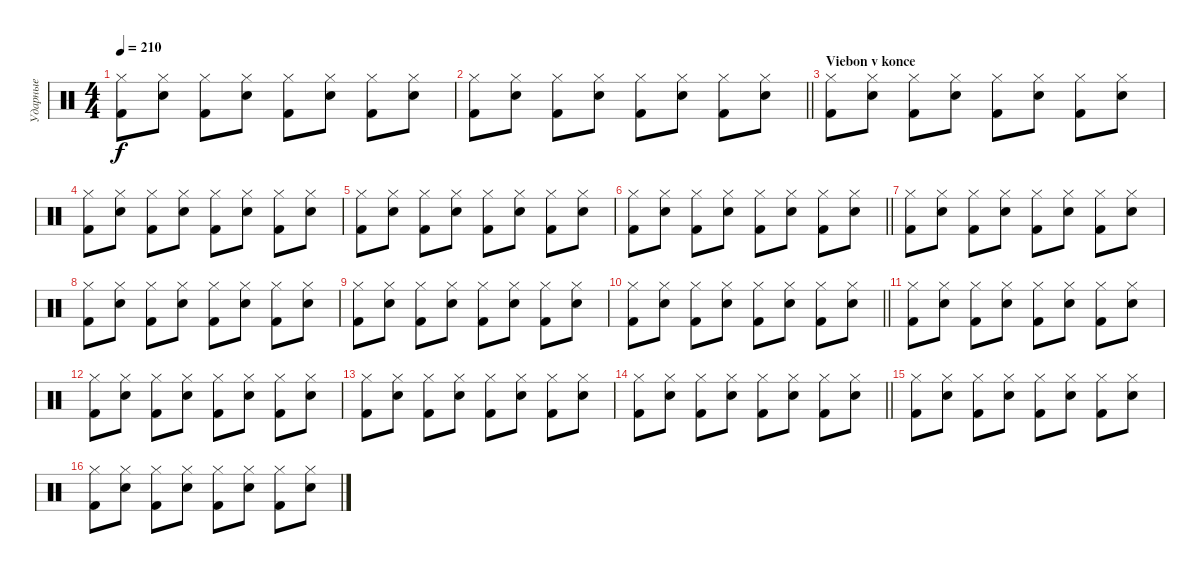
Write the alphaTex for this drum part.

\track ("Ударные" "Ударные") {instrument percussion}
\staff {score}
\articulation defaults
\ts (4 4)
\tempo 210
\clef neutral
\ks c
("Hi-Hat (closed)" "Kick (hit) 2").8{dy f} ("Hi-Hat (closed)" "Snare (hit) 2").8 ("Hi-Hat (closed)" "Kick (hit) 2").8 ("Hi-Hat (closed)" "Snare (hit) 2").8 ("Hi-Hat (closed)" "Kick (hit) 2").8 ("Hi-Hat (closed)" "Snare (hit) 2").8 ("Hi-Hat (closed)" "Kick (hit) 2").8 ("Hi-Hat (closed)" "Snare (hit) 2").8 |
\barLineRight lightlight
("Hi-Hat (closed)" "Kick (hit) 2").8 ("Hi-Hat (closed)" "Snare (hit) 2").8 ("Hi-Hat (closed)" "Kick (hit) 2").8 ("Hi-Hat (closed)" "Snare (hit) 2").8 ("Hi-Hat (closed)" "Kick (hit) 2").8 ("Hi-Hat (closed)" "Snare (hit) 2").8 ("Hi-Hat (closed)" "Kick (hit) 2").8 ("Hi-Hat (closed)" "Snare (hit) 2").8 |
\section ("" "Viebon v konce")
("Hi-Hat (closed)" "Kick (hit) 2").8 ("Hi-Hat (closed)" "Snare (hit) 2").8 ("Hi-Hat (closed)" "Kick (hit) 2").8 ("Hi-Hat (closed)" "Snare (hit) 2").8 ("Hi-Hat (closed)" "Kick (hit) 2").8 ("Hi-Hat (closed)" "Snare (hit) 2").8 ("Hi-Hat (closed)" "Kick (hit) 2").8 ("Hi-Hat (closed)" "Snare (hit) 2").8 |
("Hi-Hat (closed)" "Kick (hit) 2").8 ("Hi-Hat (closed)" "Snare (hit) 2").8 ("Hi-Hat (closed)" "Kick (hit) 2").8 ("Hi-Hat (closed)" "Snare (hit) 2").8 ("Hi-Hat (closed)" "Kick (hit) 2").8 ("Hi-Hat (closed)" "Snare (hit) 2").8 ("Hi-Hat (closed)" "Kick (hit) 2").8 ("Hi-Hat (closed)" "Snare (hit) 2").8 |
("Hi-Hat (closed)" "Kick (hit) 2").8 ("Hi-Hat (closed)" "Snare (hit) 2").8 ("Hi-Hat (closed)" "Kick (hit) 2").8 ("Hi-Hat (closed)" "Snare (hit) 2").8 ("Hi-Hat (closed)" "Kick (hit) 2").8 ("Hi-Hat (closed)" "Snare (hit) 2").8 ("Hi-Hat (closed)" "Kick (hit) 2").8 ("Hi-Hat (closed)" "Snare (hit) 2").8 |
\barLineRight lightlight
("Hi-Hat (closed)" "Kick (hit) 2").8 ("Hi-Hat (closed)" "Snare (hit) 2").8 ("Hi-Hat (closed)" "Kick (hit) 2").8 ("Hi-Hat (closed)" "Snare (hit) 2").8 ("Hi-Hat (closed)" "Kick (hit) 2").8 ("Hi-Hat (closed)" "Snare (hit) 2").8 ("Hi-Hat (closed)" "Kick (hit) 2").8 ("Hi-Hat (closed)" "Snare (hit) 2").8 |
("Hi-Hat (closed)" "Kick (hit) 2").8 ("Hi-Hat (closed)" "Snare (hit) 2").8 ("Hi-Hat (closed)" "Kick (hit) 2").8 ("Hi-Hat (closed)" "Snare (hit) 2").8 ("Hi-Hat (closed)" "Kick (hit) 2").8 ("Hi-Hat (closed)" "Snare (hit) 2").8 ("Hi-Hat (closed)" "Kick (hit) 2").8 ("Hi-Hat (closed)" "Snare (hit) 2").8 |
("Hi-Hat (closed)" "Kick (hit) 2").8 ("Hi-Hat (closed)" "Snare (hit) 2").8 ("Hi-Hat (closed)" "Kick (hit) 2").8 ("Hi-Hat (closed)" "Snare (hit) 2").8 ("Hi-Hat (closed)" "Kick (hit) 2").8 ("Hi-Hat (closed)" "Snare (hit) 2").8 ("Hi-Hat (closed)" "Kick (hit) 2").8 ("Hi-Hat (closed)" "Snare (hit) 2").8 |
("Hi-Hat (closed)" "Kick (hit) 2").8 ("Hi-Hat (closed)" "Snare (hit) 2").8 ("Hi-Hat (closed)" "Kick (hit) 2").8 ("Hi-Hat (closed)" "Snare (hit) 2").8 ("Hi-Hat (closed)" "Kick (hit) 2").8 ("Hi-Hat (closed)" "Snare (hit) 2").8 ("Hi-Hat (closed)" "Kick (hit) 2").8 ("Hi-Hat (closed)" "Snare (hit) 2").8 |
\barLineRight lightlight
("Hi-Hat (closed)" "Kick (hit) 2").8 ("Hi-Hat (closed)" "Snare (hit) 2").8 ("Hi-Hat (closed)" "Kick (hit) 2").8 ("Hi-Hat (closed)" "Snare (hit) 2").8 ("Hi-Hat (closed)" "Kick (hit) 2").8 ("Hi-Hat (closed)" "Snare (hit) 2").8 ("Hi-Hat (closed)" "Kick (hit) 2").8 ("Hi-Hat (closed)" "Snare (hit) 2").8 |
("Hi-Hat (closed)" "Kick (hit) 2").8 ("Hi-Hat (closed)" "Snare (hit) 2").8 ("Hi-Hat (closed)" "Kick (hit) 2").8 ("Hi-Hat (closed)" "Snare (hit) 2").8 ("Hi-Hat (closed)" "Kick (hit) 2").8 ("Hi-Hat (closed)" "Snare (hit) 2").8 ("Hi-Hat (closed)" "Kick (hit) 2").8 ("Hi-Hat (closed)" "Snare (hit) 2").8 |
("Hi-Hat (closed)" "Kick (hit) 2").8 ("Hi-Hat (closed)" "Snare (hit) 2").8 ("Hi-Hat (closed)" "Kick (hit) 2").8 ("Hi-Hat (closed)" "Snare (hit) 2").8 ("Hi-Hat (closed)" "Kick (hit) 2").8 ("Hi-Hat (closed)" "Snare (hit) 2").8 ("Hi-Hat (closed)" "Kick (hit) 2").8 ("Hi-Hat (closed)" "Snare (hit) 2").8 |
("Hi-Hat (closed)" "Kick (hit) 2").8 ("Hi-Hat (closed)" "Snare (hit) 2").8 ("Hi-Hat (closed)" "Kick (hit) 2").8 ("Hi-Hat (closed)" "Snare (hit) 2").8 ("Hi-Hat (closed)" "Kick (hit) 2").8 ("Hi-Hat (closed)" "Snare (hit) 2").8 ("Hi-Hat (closed)" "Kick (hit) 2").8 ("Hi-Hat (closed)" "Snare (hit) 2").8 |
\barLineRight lightlight
("Hi-Hat (closed)" "Kick (hit) 2").8 ("Hi-Hat (closed)" "Snare (hit) 2").8 ("Hi-Hat (closed)" "Kick (hit) 2").8 ("Hi-Hat (closed)" "Snare (hit) 2").8 ("Hi-Hat (closed)" "Kick (hit) 2").8 ("Hi-Hat (closed)" "Snare (hit) 2").8 ("Hi-Hat (closed)" "Kick (hit) 2").8 ("Hi-Hat (closed)" "Snare (hit) 2").8 |
("Hi-Hat (closed)" "Kick (hit) 2").8 ("Hi-Hat (closed)" "Snare (hit) 2").8 ("Hi-Hat (closed)" "Kick (hit) 2").8 ("Hi-Hat (closed)" "Snare (hit) 2").8 ("Hi-Hat (closed)" "Kick (hit) 2").8 ("Hi-Hat (closed)" "Snare (hit) 2").8 ("Hi-Hat (closed)" "Kick (hit) 2").8 ("Hi-Hat (closed)" "Snare (hit) 2").8 |
("Hi-Hat (closed)" "Kick (hit) 2").8 ("Hi-Hat (closed)" "Snare (hit) 2").8 ("Hi-Hat (closed)" "Kick (hit) 2").8 ("Hi-Hat (closed)" "Snare (hit) 2").8 ("Hi-Hat (closed)" "Kick (hit) 2").8 ("Hi-Hat (closed)" "Snare (hit) 2").8 ("Hi-Hat (closed)" "Kick (hit) 2").8 ("Hi-Hat (closed)" "Snare (hit) 2").8
